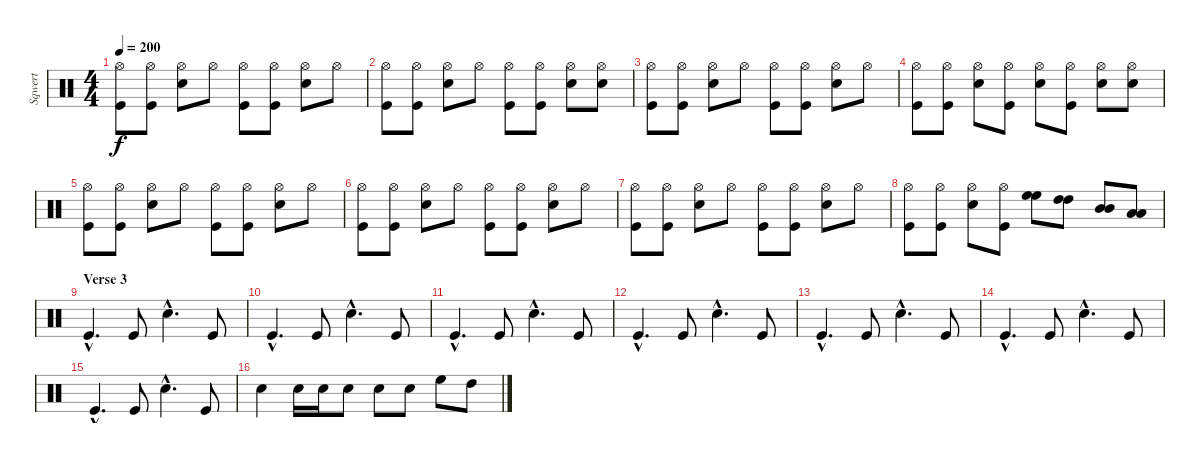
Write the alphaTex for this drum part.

\track ("Sqwert" "Sqwert") {instrument percussion}
\staff {score}
\articulation defaults
\ts (4 4)
\tempo 200
\clef neutral
\ks c
("Hi-Hat (open)" "Kick (hit)").8{dy f} ("Hi-Hat (open)" "Kick (hit)").8 ("Hi-Hat (open)" "Snare (hit) 2").8 "Hi-Hat (open)".8 ("Hi-Hat (open)" "Kick (hit)").8 ("Hi-Hat (open)" "Kick (hit)").8 ("Hi-Hat (open)" "Snare (hit) 2").8 "Hi-Hat (open)".8 |
("Hi-Hat (open)" "Kick (hit)").8 ("Hi-Hat (open)" "Kick (hit)").8 ("Hi-Hat (open)" "Snare (hit) 2").8 "Hi-Hat (open)".8 ("Hi-Hat (open)" "Kick (hit)").8 ("Hi-Hat (open)" "Kick (hit)").8 ("Hi-Hat (open)" "Snare (hit) 2").8 ("Hi-Hat (open)" "Snare (hit) 2").8 |
("Hi-Hat (open)" "Kick (hit)").8 ("Hi-Hat (open)" "Kick (hit)").8 ("Hi-Hat (open)" "Snare (hit) 2").8 "Hi-Hat (open)".8 ("Hi-Hat (open)" "Kick (hit)").8 ("Hi-Hat (open)" "Kick (hit)").8 ("Hi-Hat (open)" "Snare (hit) 2").8 "Hi-Hat (open)".8 |
("Hi-Hat (open)" "Kick (hit)").8 ("Hi-Hat (open)" "Kick (hit)").8 ("Hi-Hat (open)" "Snare (hit) 2").8 ("Hi-Hat (open)" "Kick (hit)").8 ("Hi-Hat (open)" "Snare (hit) 2").8 ("Hi-Hat (open)" "Kick (hit)").8 ("Hi-Hat (open)" "Snare (hit) 2").8 ("Hi-Hat (open)" "Snare (hit) 2").8 |
("Hi-Hat (open)" "Kick (hit)").8 ("Hi-Hat (open)" "Kick (hit)").8 ("Hi-Hat (open)" "Snare (hit) 2").8 "Hi-Hat (open)".8 ("Hi-Hat (open)" "Kick (hit)").8 ("Hi-Hat (open)" "Kick (hit)").8 ("Hi-Hat (open)" "Snare (hit) 2").8 "Hi-Hat (open)".8 |
("Hi-Hat (open)" "Kick (hit)").8 ("Hi-Hat (open)" "Kick (hit)").8 ("Hi-Hat (open)" "Snare (hit) 2").8 "Hi-Hat (open)".8 ("Hi-Hat (open)" "Kick (hit)").8 ("Hi-Hat (open)" "Kick (hit)").8 ("Hi-Hat (open)" "Snare (hit) 2").8 "Hi-Hat (open)".8 |
("Hi-Hat (open)" "Kick (hit)").8 ("Hi-Hat (open)" "Kick (hit)").8 ("Hi-Hat (open)" "Snare (hit) 2").8 "Hi-Hat (open)".8 ("Hi-Hat (open)" "Kick (hit)").8 ("Hi-Hat (open)" "Kick (hit)").8 ("Hi-Hat (open)" "Snare (hit) 2").8 "Hi-Hat (open)".8 |
("Hi-Hat (open)" "Kick (hit)").8 ("Hi-Hat (open)" "Kick (hit)").8 ("Hi-Hat (open)" "Snare (hit) 2").8 ("Hi-Hat (open)" "Kick (hit)").8 ("High Floor Tom (hit)" "High Floor Tom (hit)").8 ("High Tom (hit)" "High Tom (hit)").8 ("Mid Tom (hit)" "Mid Tom (hit)").8 ("Low Tom (hit)" "Low Tom (hit)").8 |
\section ("" "Verse 3")
"Kick (hit)"{hac}.4{d} "Kick (hit)".8 "Snare (hit) 2"{hac}.4{d} "Kick (hit)".8 |
"Kick (hit)"{hac}.4{d} "Kick (hit)".8 "Snare (hit) 2"{hac}.4{d} "Kick (hit)".8 |
"Kick (hit)"{hac}.4{d} "Kick (hit)".8 "Snare (hit) 2"{hac}.4{d} "Kick (hit)".8 |
"Kick (hit)"{hac}.4{d} "Kick (hit)".8 "Snare (hit) 2"{hac}.4{d} "Kick (hit)".8 |
"Kick (hit)"{hac}.4{d} "Kick (hit)".8 "Snare (hit) 2"{hac}.4{d} "Kick (hit)".8 |
"Kick (hit)"{hac}.4{d} "Kick (hit)".8 "Snare (hit) 2"{hac}.4{d} "Kick (hit)".8 |
"Kick (hit)"{hac}.4{d} "Kick (hit)".8 "Snare (hit) 2"{hac}.4{d} "Kick (hit)".8 |
"Snare (hit) 2".4 "Snare (hit) 2".16 "Snare (hit) 2".16 "Snare (hit) 2".8 "Snare (hit) 2".8 "Snare (hit) 2".8 "High Floor Tom (hit)".8 "High Tom (hit)".8
